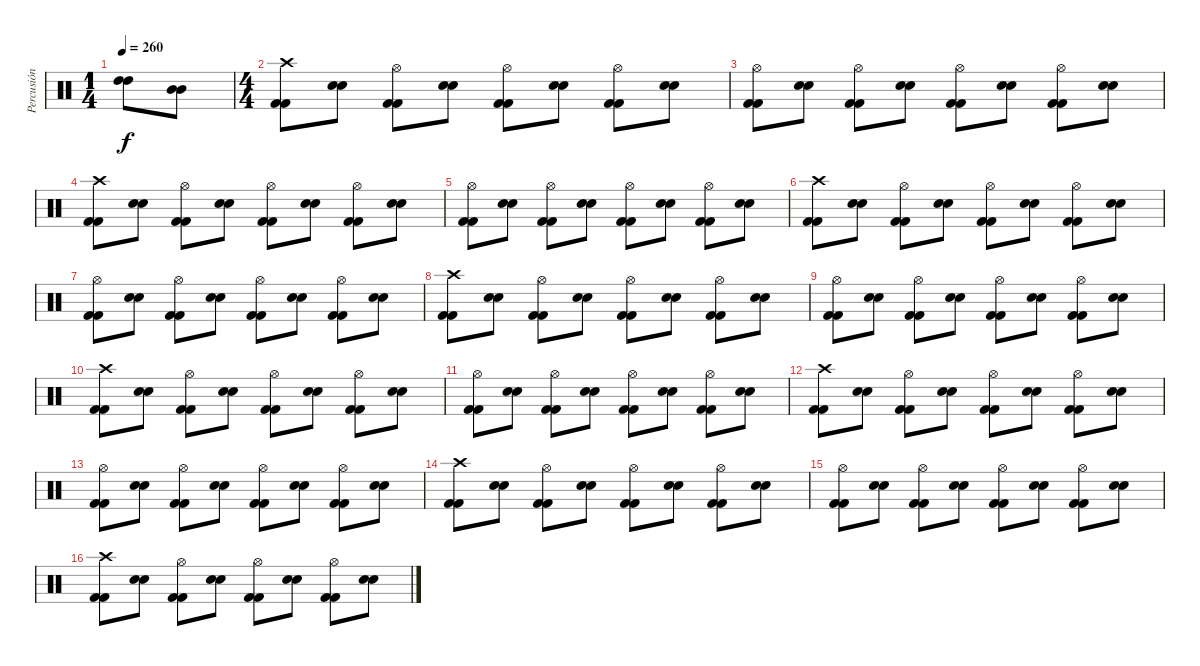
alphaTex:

\track ("Percusión" "Percusión") {instrument percussion}
\staff {score}
\articulation defaults
\ts (1 4)
\tempo 260
\clef neutral
\ks c
("High Tom (hit)" "High Tom (hit)").8{dy f} ("Mid Tom (hit)" "Mid Tom (hit)").8 |
\ts (4 4)
("Kick (hit) 2" "Kick (hit) 2" "Crash high (hit)").8 ("Electric Snare (hit)" "Electric Snare (hit)").8 ("Kick (hit) 2" "Kick (hit) 2" "Hi-Hat (open)").8 ("Electric Snare (hit)" "Electric Snare (hit)").8 ("Kick (hit) 2" "Kick (hit) 2" "Hi-Hat (open)").8 ("Electric Snare (hit)" "Electric Snare (hit)").8 ("Kick (hit) 2" "Kick (hit) 2" "Hi-Hat (open)").8 ("Electric Snare (hit)" "Electric Snare (hit)").8 |
("Kick (hit) 2" "Kick (hit) 2" "Hi-Hat (open)").8 ("Electric Snare (hit)" "Electric Snare (hit)").8 ("Kick (hit) 2" "Kick (hit) 2" "Hi-Hat (open)").8 ("Electric Snare (hit)" "Electric Snare (hit)").8 ("Kick (hit) 2" "Kick (hit) 2" "Hi-Hat (open)").8 ("Electric Snare (hit)" "Electric Snare (hit)").8 ("Kick (hit) 2" "Kick (hit) 2" "Hi-Hat (open)").8 ("Electric Snare (hit)" "Electric Snare (hit)").8 |
("Kick (hit) 2" "Kick (hit) 2" "Crash high (hit)").8 ("Electric Snare (hit)" "Electric Snare (hit)").8 ("Kick (hit) 2" "Kick (hit) 2" "Hi-Hat (open)").8 ("Electric Snare (hit)" "Electric Snare (hit)").8 ("Kick (hit) 2" "Kick (hit) 2" "Hi-Hat (open)").8 ("Electric Snare (hit)" "Electric Snare (hit)").8 ("Kick (hit) 2" "Kick (hit) 2" "Hi-Hat (open)").8 ("Electric Snare (hit)" "Electric Snare (hit)").8 |
("Kick (hit) 2" "Kick (hit) 2" "Hi-Hat (open)").8 ("Electric Snare (hit)" "Electric Snare (hit)").8 ("Kick (hit) 2" "Kick (hit) 2" "Hi-Hat (open)").8 ("Electric Snare (hit)" "Electric Snare (hit)").8 ("Kick (hit) 2" "Kick (hit) 2" "Hi-Hat (open)").8 ("Electric Snare (hit)" "Electric Snare (hit)").8 ("Kick (hit) 2" "Kick (hit) 2" "Hi-Hat (open)").8 ("Electric Snare (hit)" "Electric Snare (hit)").8 |
("Kick (hit) 2" "Kick (hit) 2" "Crash high (hit)").8 ("Electric Snare (hit)" "Electric Snare (hit)").8 ("Kick (hit) 2" "Kick (hit) 2" "Hi-Hat (open)").8 ("Electric Snare (hit)" "Electric Snare (hit)").8 ("Kick (hit) 2" "Kick (hit) 2" "Hi-Hat (open)").8 ("Electric Snare (hit)" "Electric Snare (hit)").8 ("Kick (hit) 2" "Kick (hit) 2" "Hi-Hat (open)").8 ("Electric Snare (hit)" "Electric Snare (hit)").8 |
("Kick (hit) 2" "Kick (hit) 2" "Hi-Hat (open)").8 ("Electric Snare (hit)" "Electric Snare (hit)").8 ("Kick (hit) 2" "Kick (hit) 2" "Hi-Hat (open)").8 ("Electric Snare (hit)" "Electric Snare (hit)").8 ("Kick (hit) 2" "Kick (hit) 2" "Hi-Hat (open)").8 ("Electric Snare (hit)" "Electric Snare (hit)").8 ("Kick (hit) 2" "Kick (hit) 2" "Hi-Hat (open)").8 ("Electric Snare (hit)" "Electric Snare (hit)").8 |
("Kick (hit) 2" "Kick (hit) 2" "Crash high (hit)").8 ("Electric Snare (hit)" "Electric Snare (hit)").8 ("Kick (hit) 2" "Kick (hit) 2" "Hi-Hat (open)").8 ("Electric Snare (hit)" "Electric Snare (hit)").8 ("Kick (hit) 2" "Kick (hit) 2" "Hi-Hat (open)").8 ("Electric Snare (hit)" "Electric Snare (hit)").8 ("Kick (hit) 2" "Kick (hit) 2" "Hi-Hat (open)").8 ("Electric Snare (hit)" "Electric Snare (hit)").8 |
("Kick (hit) 2" "Kick (hit) 2" "Hi-Hat (open)").8 ("Electric Snare (hit)" "Electric Snare (hit)").8 ("Kick (hit) 2" "Kick (hit) 2" "Hi-Hat (open)").8 ("Electric Snare (hit)" "Electric Snare (hit)").8 ("Kick (hit) 2" "Kick (hit) 2" "Hi-Hat (open)").8 ("Electric Snare (hit)" "Electric Snare (hit)").8 ("Kick (hit) 2" "Kick (hit) 2" "Hi-Hat (open)").8 ("Electric Snare (hit)" "Electric Snare (hit)").8 |
("Kick (hit) 2" "Kick (hit) 2" "Crash high (hit)").8 ("Electric Snare (hit)" "Electric Snare (hit)").8 ("Kick (hit) 2" "Kick (hit) 2" "Hi-Hat (open)").8 ("Electric Snare (hit)" "Electric Snare (hit)").8 ("Kick (hit) 2" "Kick (hit) 2" "Hi-Hat (open)").8 ("Electric Snare (hit)" "Electric Snare (hit)").8 ("Kick (hit) 2" "Kick (hit) 2" "Hi-Hat (open)").8 ("Electric Snare (hit)" "Electric Snare (hit)").8 |
("Kick (hit) 2" "Kick (hit) 2" "Hi-Hat (open)").8 ("Electric Snare (hit)" "Electric Snare (hit)").8 ("Kick (hit) 2" "Kick (hit) 2" "Hi-Hat (open)").8 ("Electric Snare (hit)" "Electric Snare (hit)").8 ("Kick (hit) 2" "Kick (hit) 2" "Hi-Hat (open)").8 ("Electric Snare (hit)" "Electric Snare (hit)").8 ("Kick (hit) 2" "Kick (hit) 2" "Hi-Hat (open)").8 ("Electric Snare (hit)" "Electric Snare (hit)").8 |
("Kick (hit) 2" "Kick (hit) 2" "Crash high (hit)").8 ("Electric Snare (hit)" "Electric Snare (hit)").8 ("Kick (hit) 2" "Kick (hit) 2" "Hi-Hat (open)").8 ("Electric Snare (hit)" "Electric Snare (hit)").8 ("Kick (hit) 2" "Kick (hit) 2" "Hi-Hat (open)").8 ("Electric Snare (hit)" "Electric Snare (hit)").8 ("Kick (hit) 2" "Kick (hit) 2" "Hi-Hat (open)").8 ("Electric Snare (hit)" "Electric Snare (hit)").8 |
("Kick (hit) 2" "Kick (hit) 2" "Hi-Hat (open)").8 ("Electric Snare (hit)" "Electric Snare (hit)").8 ("Kick (hit) 2" "Kick (hit) 2" "Hi-Hat (open)").8 ("Electric Snare (hit)" "Electric Snare (hit)").8 ("Kick (hit) 2" "Kick (hit) 2" "Hi-Hat (open)").8 ("Electric Snare (hit)" "Electric Snare (hit)").8 ("Kick (hit) 2" "Kick (hit) 2" "Hi-Hat (open)").8 ("Electric Snare (hit)" "Electric Snare (hit)").8 |
("Kick (hit) 2" "Kick (hit) 2" "Crash high (hit)").8 ("Electric Snare (hit)" "Electric Snare (hit)").8 ("Kick (hit) 2" "Kick (hit) 2" "Hi-Hat (open)").8 ("Electric Snare (hit)" "Electric Snare (hit)").8 ("Kick (hit) 2" "Kick (hit) 2" "Hi-Hat (open)").8 ("Electric Snare (hit)" "Electric Snare (hit)").8 ("Kick (hit) 2" "Kick (hit) 2" "Hi-Hat (open)").8 ("Electric Snare (hit)" "Electric Snare (hit)").8 |
("Kick (hit) 2" "Kick (hit) 2" "Hi-Hat (open)").8 ("Electric Snare (hit)" "Electric Snare (hit)").8 ("Kick (hit) 2" "Kick (hit) 2" "Hi-Hat (open)").8 ("Electric Snare (hit)" "Electric Snare (hit)").8 ("Kick (hit) 2" "Kick (hit) 2" "Hi-Hat (open)").8 ("Electric Snare (hit)" "Electric Snare (hit)").8 ("Kick (hit) 2" "Kick (hit) 2" "Hi-Hat (open)").8 ("Electric Snare (hit)" "Electric Snare (hit)").8 |
("Kick (hit) 2" "Kick (hit) 2" "Crash high (hit)").8 ("Electric Snare (hit)" "Electric Snare (hit)").8 ("Kick (hit) 2" "Kick (hit) 2" "Hi-Hat (open)").8 ("Electric Snare (hit)" "Electric Snare (hit)").8 ("Kick (hit) 2" "Kick (hit) 2" "Hi-Hat (open)").8 ("Electric Snare (hit)" "Electric Snare (hit)").8 ("Kick (hit) 2" "Kick (hit) 2" "Hi-Hat (open)").8 ("Electric Snare (hit)" "Electric Snare (hit)").8
